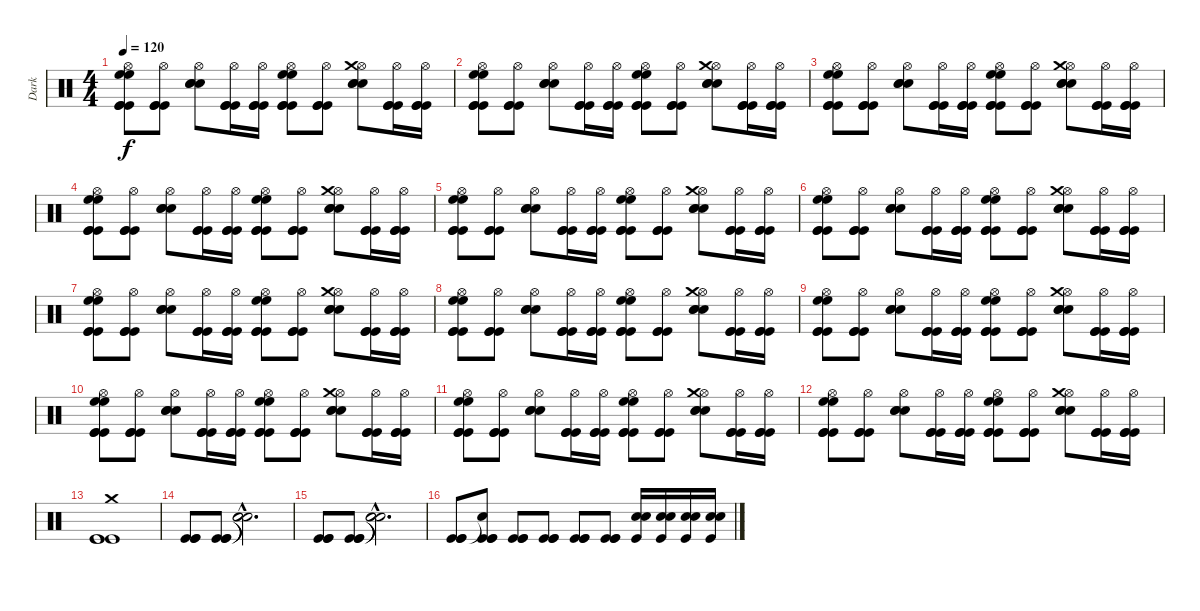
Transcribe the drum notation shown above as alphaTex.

\track ("Dark" "Dark") {instrument percussion}
\staff {score}
\articulation defaults
\ts (4 4)
\tempo 120
\clef neutral
\ks c
("Hi-Hat (open)" "High Floor Tom (hit)" "High Floor Tom (hit)" "Kick (hit)" "Kick (hit)" "Kick (hit)").8{dy f} ("Hi-Hat (open)" "Kick (hit)" "Kick (hit)" "Kick (hit)").8 ("Hi-Hat (open)" "Snare (hit) 2" "Snare (hit) 2" "Snare (hit) 2").8 ("Hi-Hat (open)" "Kick (hit)" "Kick (hit)" "Kick (hit)").16 ("Hi-Hat (open)" "Kick (hit)" "Kick (hit)" "Kick (hit)").16 ("Hi-Hat (open)" "High Floor Tom (hit)" "High Floor Tom (hit)" "Kick (hit)" "Kick (hit)" "Kick (hit)").8 ("Hi-Hat (open)" "Kick (hit)" "Kick (hit)" "Kick (hit)").8 ("Hi-Hat (open)" "Crash medium (hit)" "Snare (hit) 2" "Snare (hit) 2" "Snare (hit) 2").8 ("Hi-Hat (open)" "Kick (hit)" "Kick (hit)" "Kick (hit)").16 ("Hi-Hat (open)" "Kick (hit)" "Kick (hit)" "Kick (hit)").16 |
("Hi-Hat (open)" "High Floor Tom (hit)" "High Floor Tom (hit)" "Kick (hit)" "Kick (hit)" "Kick (hit)").8 ("Hi-Hat (open)" "Kick (hit)" "Kick (hit)" "Kick (hit)").8 ("Hi-Hat (open)" "Snare (hit) 2" "Snare (hit) 2" "Snare (hit) 2").8 ("Hi-Hat (open)" "Kick (hit)" "Kick (hit)" "Kick (hit)").16 ("Hi-Hat (open)" "Kick (hit)" "Kick (hit)" "Kick (hit)").16 ("Hi-Hat (open)" "High Floor Tom (hit)" "High Floor Tom (hit)" "Kick (hit)" "Kick (hit)" "Kick (hit)").8 ("Hi-Hat (open)" "Kick (hit)" "Kick (hit)" "Kick (hit)").8 ("Hi-Hat (open)" "Crash medium (hit)" "Snare (hit) 2" "Snare (hit) 2" "Snare (hit) 2").8 ("Hi-Hat (open)" "Kick (hit)" "Kick (hit)" "Kick (hit)").16 ("Hi-Hat (open)" "Kick (hit)" "Kick (hit)" "Kick (hit)").16 |
("Hi-Hat (open)" "High Floor Tom (hit)" "High Floor Tom (hit)" "Kick (hit)" "Kick (hit)" "Kick (hit)").8 ("Hi-Hat (open)" "Kick (hit)" "Kick (hit)" "Kick (hit)").8 ("Hi-Hat (open)" "Snare (hit) 2" "Snare (hit) 2" "Snare (hit) 2").8 ("Hi-Hat (open)" "Kick (hit)" "Kick (hit)" "Kick (hit)").16 ("Hi-Hat (open)" "Kick (hit)" "Kick (hit)" "Kick (hit)").16 ("Hi-Hat (open)" "High Floor Tom (hit)" "High Floor Tom (hit)" "Kick (hit)" "Kick (hit)" "Kick (hit)").8 ("Hi-Hat (open)" "Kick (hit)" "Kick (hit)" "Kick (hit)").8 ("Hi-Hat (open)" "Crash medium (hit)" "Snare (hit) 2" "Snare (hit) 2" "Snare (hit) 2").8 ("Hi-Hat (open)" "Kick (hit)" "Kick (hit)" "Kick (hit)").16 ("Hi-Hat (open)" "Kick (hit)" "Kick (hit)" "Kick (hit)").16 |
("Hi-Hat (open)" "High Floor Tom (hit)" "High Floor Tom (hit)" "Kick (hit)" "Kick (hit)" "Kick (hit)").8 ("Hi-Hat (open)" "Kick (hit)" "Kick (hit)" "Kick (hit)").8 ("Hi-Hat (open)" "Snare (hit) 2" "Snare (hit) 2" "Snare (hit) 2").8 ("Hi-Hat (open)" "Kick (hit)" "Kick (hit)" "Kick (hit)").16 ("Hi-Hat (open)" "Kick (hit)" "Kick (hit)" "Kick (hit)").16 ("Hi-Hat (open)" "High Floor Tom (hit)" "High Floor Tom (hit)" "Kick (hit)" "Kick (hit)" "Kick (hit)").8 ("Hi-Hat (open)" "Kick (hit)" "Kick (hit)" "Kick (hit)").8 ("Hi-Hat (open)" "Crash medium (hit)" "Snare (hit) 2" "Snare (hit) 2" "Snare (hit) 2").8 ("Hi-Hat (open)" "Kick (hit)" "Kick (hit)" "Kick (hit)").16 ("Hi-Hat (open)" "Kick (hit)" "Kick (hit)" "Kick (hit)").16 |
("Hi-Hat (open)" "High Floor Tom (hit)" "High Floor Tom (hit)" "Kick (hit)" "Kick (hit)" "Kick (hit)").8 ("Hi-Hat (open)" "Kick (hit)" "Kick (hit)" "Kick (hit)").8 ("Hi-Hat (open)" "Snare (hit) 2" "Snare (hit) 2" "Snare (hit) 2").8 ("Hi-Hat (open)" "Kick (hit)" "Kick (hit)" "Kick (hit)").16 ("Hi-Hat (open)" "Kick (hit)" "Kick (hit)" "Kick (hit)").16 ("Hi-Hat (open)" "High Floor Tom (hit)" "High Floor Tom (hit)" "Kick (hit)" "Kick (hit)" "Kick (hit)").8 ("Hi-Hat (open)" "Kick (hit)" "Kick (hit)" "Kick (hit)").8 ("Hi-Hat (open)" "Crash medium (hit)" "Snare (hit) 2" "Snare (hit) 2" "Snare (hit) 2").8 ("Hi-Hat (open)" "Kick (hit)" "Kick (hit)" "Kick (hit)").16 ("Hi-Hat (open)" "Kick (hit)" "Kick (hit)" "Kick (hit)").16 |
("Hi-Hat (open)" "High Floor Tom (hit)" "High Floor Tom (hit)" "Kick (hit)" "Kick (hit)" "Kick (hit)").8 ("Hi-Hat (open)" "Kick (hit)" "Kick (hit)" "Kick (hit)").8 ("Hi-Hat (open)" "Snare (hit) 2" "Snare (hit) 2" "Snare (hit) 2").8 ("Hi-Hat (open)" "Kick (hit)" "Kick (hit)" "Kick (hit)").16 ("Hi-Hat (open)" "Kick (hit)" "Kick (hit)" "Kick (hit)").16 ("Hi-Hat (open)" "High Floor Tom (hit)" "High Floor Tom (hit)" "Kick (hit)" "Kick (hit)" "Kick (hit)").8 ("Hi-Hat (open)" "Kick (hit)" "Kick (hit)" "Kick (hit)").8 ("Hi-Hat (open)" "Crash medium (hit)" "Snare (hit) 2" "Snare (hit) 2" "Snare (hit) 2").8 ("Hi-Hat (open)" "Kick (hit)" "Kick (hit)" "Kick (hit)").16 ("Hi-Hat (open)" "Kick (hit)" "Kick (hit)" "Kick (hit)").16 |
("Hi-Hat (open)" "High Floor Tom (hit)" "High Floor Tom (hit)" "Kick (hit)" "Kick (hit)" "Kick (hit)").8 ("Hi-Hat (open)" "Kick (hit)" "Kick (hit)" "Kick (hit)").8 ("Hi-Hat (open)" "Snare (hit) 2" "Snare (hit) 2" "Snare (hit) 2").8 ("Hi-Hat (open)" "Kick (hit)" "Kick (hit)" "Kick (hit)").16 ("Hi-Hat (open)" "Kick (hit)" "Kick (hit)" "Kick (hit)").16 ("Hi-Hat (open)" "High Floor Tom (hit)" "High Floor Tom (hit)" "Kick (hit)" "Kick (hit)" "Kick (hit)").8 ("Hi-Hat (open)" "Kick (hit)" "Kick (hit)" "Kick (hit)").8 ("Hi-Hat (open)" "Crash medium (hit)" "Snare (hit) 2" "Snare (hit) 2" "Snare (hit) 2").8 ("Hi-Hat (open)" "Kick (hit)" "Kick (hit)" "Kick (hit)").16 ("Hi-Hat (open)" "Kick (hit)" "Kick (hit)" "Kick (hit)").16 |
("Hi-Hat (open)" "High Floor Tom (hit)" "High Floor Tom (hit)" "Kick (hit)" "Kick (hit)" "Kick (hit)").8 ("Hi-Hat (open)" "Kick (hit)" "Kick (hit)" "Kick (hit)").8 ("Hi-Hat (open)" "Snare (hit) 2" "Snare (hit) 2" "Snare (hit) 2").8 ("Hi-Hat (open)" "Kick (hit)" "Kick (hit)" "Kick (hit)").16 ("Hi-Hat (open)" "Kick (hit)" "Kick (hit)" "Kick (hit)").16 ("Hi-Hat (open)" "High Floor Tom (hit)" "High Floor Tom (hit)" "Kick (hit)" "Kick (hit)" "Kick (hit)").8 ("Hi-Hat (open)" "Kick (hit)" "Kick (hit)" "Kick (hit)").8 ("Hi-Hat (open)" "Crash medium (hit)" "Snare (hit) 2" "Snare (hit) 2" "Snare (hit) 2").8 ("Hi-Hat (open)" "Kick (hit)" "Kick (hit)" "Kick (hit)").16 ("Hi-Hat (open)" "Kick (hit)" "Kick (hit)" "Kick (hit)").16 |
("Hi-Hat (open)" "High Floor Tom (hit)" "High Floor Tom (hit)" "Kick (hit)" "Kick (hit)" "Kick (hit)").8 ("Hi-Hat (open)" "Kick (hit)" "Kick (hit)" "Kick (hit)").8 ("Hi-Hat (open)" "Snare (hit) 2" "Snare (hit) 2" "Snare (hit) 2").8 ("Hi-Hat (open)" "Kick (hit)" "Kick (hit)" "Kick (hit)").16 ("Hi-Hat (open)" "Kick (hit)" "Kick (hit)" "Kick (hit)").16 ("Hi-Hat (open)" "High Floor Tom (hit)" "High Floor Tom (hit)" "Kick (hit)" "Kick (hit)" "Kick (hit)").8 ("Hi-Hat (open)" "Kick (hit)" "Kick (hit)" "Kick (hit)").8 ("Hi-Hat (open)" "Crash medium (hit)" "Snare (hit) 2" "Snare (hit) 2" "Snare (hit) 2").8 ("Hi-Hat (open)" "Kick (hit)" "Kick (hit)" "Kick (hit)").16 ("Hi-Hat (open)" "Kick (hit)" "Kick (hit)" "Kick (hit)").16 |
("Hi-Hat (open)" "High Floor Tom (hit)" "High Floor Tom (hit)" "Kick (hit)" "Kick (hit)" "Kick (hit)").8 ("Hi-Hat (open)" "Kick (hit)" "Kick (hit)" "Kick (hit)").8 ("Hi-Hat (open)" "Snare (hit) 2" "Snare (hit) 2" "Snare (hit) 2").8 ("Hi-Hat (open)" "Kick (hit)" "Kick (hit)" "Kick (hit)").16 ("Hi-Hat (open)" "Kick (hit)" "Kick (hit)" "Kick (hit)").16 ("Hi-Hat (open)" "High Floor Tom (hit)" "High Floor Tom (hit)" "Kick (hit)" "Kick (hit)" "Kick (hit)").8 ("Hi-Hat (open)" "Kick (hit)" "Kick (hit)" "Kick (hit)").8 ("Hi-Hat (open)" "Crash medium (hit)" "Snare (hit) 2" "Snare (hit) 2" "Snare (hit) 2").8 ("Hi-Hat (open)" "Kick (hit)" "Kick (hit)" "Kick (hit)").16 ("Hi-Hat (open)" "Kick (hit)" "Kick (hit)" "Kick (hit)").16 |
("Hi-Hat (open)" "High Floor Tom (hit)" "High Floor Tom (hit)" "Kick (hit)" "Kick (hit)" "Kick (hit)").8 ("Hi-Hat (open)" "Kick (hit)" "Kick (hit)" "Kick (hit)").8 ("Hi-Hat (open)" "Snare (hit) 2" "Snare (hit) 2" "Snare (hit) 2").8 ("Hi-Hat (open)" "Kick (hit)" "Kick (hit)" "Kick (hit)").16 ("Hi-Hat (open)" "Kick (hit)" "Kick (hit)" "Kick (hit)").16 ("Hi-Hat (open)" "High Floor Tom (hit)" "High Floor Tom (hit)" "Kick (hit)" "Kick (hit)" "Kick (hit)").8 ("Hi-Hat (open)" "Kick (hit)" "Kick (hit)" "Kick (hit)").8 ("Hi-Hat (open)" "Crash medium (hit)" "Snare (hit) 2" "Snare (hit) 2" "Snare (hit) 2").8 ("Hi-Hat (open)" "Kick (hit)" "Kick (hit)" "Kick (hit)").16 ("Hi-Hat (open)" "Kick (hit)" "Kick (hit)" "Kick (hit)").16 |
("Hi-Hat (open)" "High Floor Tom (hit)" "High Floor Tom (hit)" "Kick (hit)" "Kick (hit)" "Kick (hit)").8 ("Hi-Hat (open)" "Kick (hit)" "Kick (hit)" "Kick (hit)").8 ("Hi-Hat (open)" "Snare (hit) 2" "Snare (hit) 2" "Snare (hit) 2").8 ("Hi-Hat (open)" "Kick (hit)" "Kick (hit)" "Kick (hit)").16 ("Hi-Hat (open)" "Kick (hit)" "Kick (hit)" "Kick (hit)").16 ("Hi-Hat (open)" "High Floor Tom (hit)" "High Floor Tom (hit)" "Kick (hit)" "Kick (hit)" "Kick (hit)").8 ("Hi-Hat (open)" "Kick (hit)" "Kick (hit)" "Kick (hit)").8 ("Hi-Hat (open)" "Crash medium (hit)" "Snare (hit) 2" "Snare (hit) 2" "Snare (hit) 2").8 ("Hi-Hat (open)" "Kick (hit)" "Kick (hit)" "Kick (hit)").16 ("Hi-Hat (open)" "Kick (hit)" "Kick (hit)" "Kick (hit)").16 |
\section ("" "")
("Crash medium (hit)" "Kick (hit)" "Kick (hit)" "Kick (hit)").1 |
("Kick (hit)" "Kick (hit)" "Kick (hit)").8 ("Kick (hit)" "Kick (hit)" "Kick (hit)").8 ("Snare (hit)"{hac t} "Snare (hit)"{hac t} "Snare (hit)"{hac t}).2{d} |
("Kick (hit)" "Kick (hit)" "Kick (hit)").8 ("Kick (hit)" "Kick (hit)" "Kick (hit)").8 ("Snare (hit)"{hac t} "Snare (hit)"{hac t} "Snare (hit)"{hac t}).2{d} |
("Kick (hit)" "Kick (hit)" "Kick (hit)").8 ("Snare (hit)"{t} "Kick (hit)" "Kick (hit)" "Kick (hit)").8 ("Kick (hit)" "Kick (hit)" "Kick (hit)").8 ("Kick (hit)" "Kick (hit)" "Kick (hit)").8 ("Kick (hit)" "Kick (hit)" "Kick (hit)").8 ("Kick (hit)" "Kick (hit)" "Kick (hit)").8 ("Snare (hit) 2" "Snare (hit) 2" "Kick (hit)").16 ("Snare (hit) 2" "Snare (hit) 2" "Kick (hit)").16 ("Snare (hit) 2" "Snare (hit) 2" "Kick (hit)").16 ("Snare (hit) 2" "Snare (hit) 2" "Kick (hit)").16
